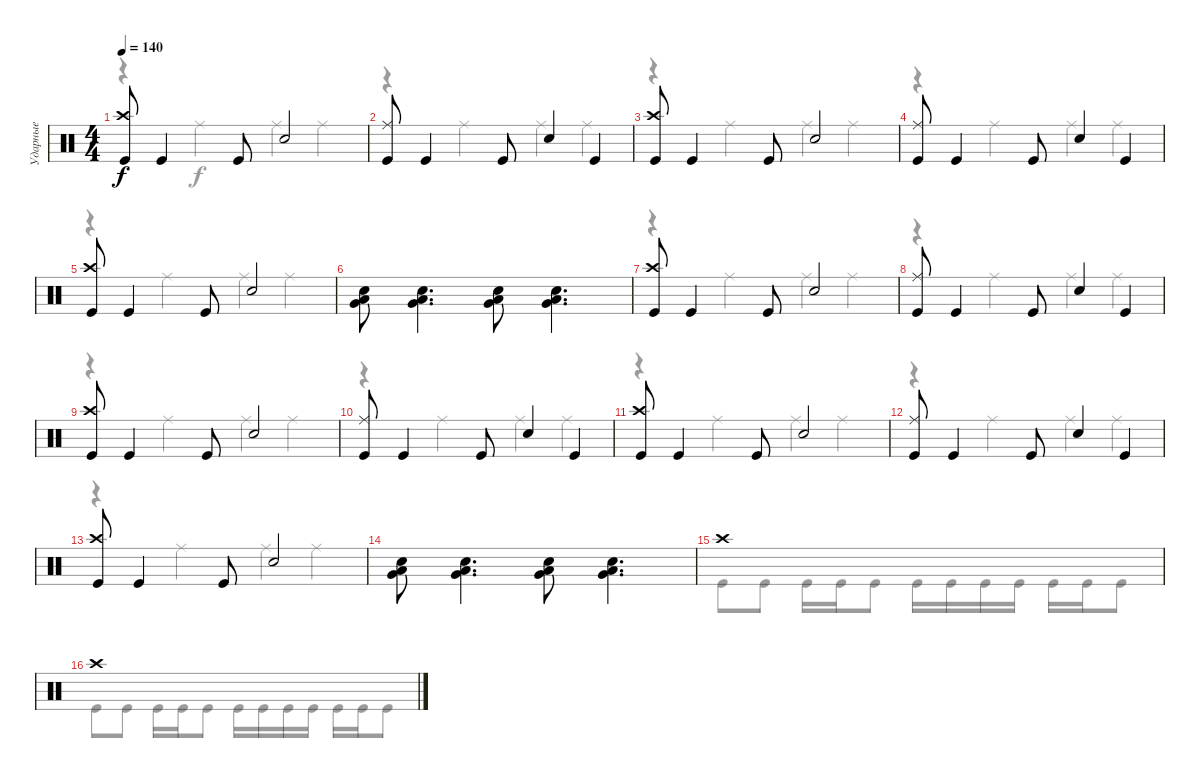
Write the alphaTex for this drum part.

\track ("Ударные" "Ударные") {instrument percussion}
\staff {score}
\articulation defaults
\voice
\ts (4 4)
\tempo 140
\clef neutral
\ks c
("Crash high (hit)" "Kick (hit)").8{dy f} "Kick (hit)".4 "Kick (hit)".8 "Electric Snare (hit)".2 |
("Ride (middle)" "Kick (hit)").8 "Kick (hit)".4 "Kick (hit)".8 "Electric Snare (hit)".4 "Kick (hit)".4 |
("Crash high (hit)" "Kick (hit)").8 "Kick (hit)".4 "Kick (hit)".8 "Electric Snare (hit)".2 |
("Ride (middle)" "Kick (hit)").8 "Kick (hit)".4 "Kick (hit)".8 "Electric Snare (hit)".4 "Kick (hit)".4 |
("Crash high (hit)" "Kick (hit)").8 "Kick (hit)".4 "Kick (hit)".8 "Electric Snare (hit)".2 |
("Very Low Tom (hit)" "Electric Snare (hit)" "Low Floor Tom (hit)").8 ("Very Low Tom (hit)" "Electric Snare (hit)" "Low Floor Tom (hit)").4{d} ("Very Low Tom (hit)" "Electric Snare (hit)" "Low Floor Tom (hit)").8 ("Very Low Tom (hit)" "Electric Snare (hit)" "Low Floor Tom (hit)").4{d} |
("Crash high (hit)" "Kick (hit)").8 "Kick (hit)".4 "Kick (hit)".8 "Electric Snare (hit)".2 |
("Ride (middle)" "Kick (hit)").8 "Kick (hit)".4 "Kick (hit)".8 "Electric Snare (hit)".4 "Kick (hit)".4 |
("Crash high (hit)" "Kick (hit)").8 "Kick (hit)".4 "Kick (hit)".8 "Electric Snare (hit)".2 |
("Ride (middle)" "Kick (hit)").8 "Kick (hit)".4 "Kick (hit)".8 "Electric Snare (hit)".4 "Kick (hit)".4 |
("Crash high (hit)" "Kick (hit)").8 "Kick (hit)".4 "Kick (hit)".8 "Electric Snare (hit)".2 |
("Ride (middle)" "Kick (hit)").8 "Kick (hit)".4 "Kick (hit)".8 "Electric Snare (hit)".4 "Kick (hit)".4 |
("Crash high (hit)" "Kick (hit)").8 "Kick (hit)".4 "Kick (hit)".8 "Electric Snare (hit)".2 |
("Very Low Tom (hit)" "Electric Snare (hit)" "Low Floor Tom (hit)").8 ("Very Low Tom (hit)" "Electric Snare (hit)" "Low Floor Tom (hit)").4{d} ("Very Low Tom (hit)" "Electric Snare (hit)" "Low Floor Tom (hit)").8 ("Very Low Tom (hit)" "Electric Snare (hit)" "Low Floor Tom (hit)").4{d} |
"Crash high (hit)".1 |
"Crash high (hit)".1
\voice
\clef neutral
\ottava regular
\simile none
\ks c
r.4{dy f} "Ride (middle)".4 "Ride (middle)".4 "Ride (middle)".4 |
r.4 "Ride (middle)".4 "Ride (middle)".4 "Ride (middle)".4 |
r.4 "Ride (middle)".4 "Ride (middle)".4 "Ride (middle)".4 |
r.4 "Ride (middle)".4 "Ride (middle)".4 "Ride (middle)".4 |
r.4 "Ride (middle)".4 "Ride (middle)".4 "Ride (middle)".4 |
|
r.4 "Ride (middle)".4 "Ride (middle)".4 "Ride (middle)".4 |
r.4 "Ride (middle)".4 "Ride (middle)".4 "Ride (middle)".4 |
r.4 "Ride (middle)".4 "Ride (middle)".4 "Ride (middle)".4 |
r.4 "Ride (middle)".4 "Ride (middle)".4 "Ride (middle)".4 |
r.4 "Ride (middle)".4 "Ride (middle)".4 "Ride (middle)".4 |
r.4 "Ride (middle)".4 "Ride (middle)".4 "Ride (middle)".4 |
r.4 "Ride (middle)".4 "Ride (middle)".4 "Ride (middle)".4 |
|
"Kick (hit)".8 "Kick (hit)".8 "Kick (hit)".16 "Kick (hit)".16 "Kick (hit)".8 "Kick (hit)".16 "Kick (hit)".16 "Kick (hit)".16 "Kick (hit)".16 "Kick (hit)".16 "Kick (hit)".16 "Kick (hit)".8 |
"Kick (hit)".8 "Kick (hit)".8 "Kick (hit)".16 "Kick (hit)".16 "Kick (hit)".8 "Kick (hit)".16 "Kick (hit)".16 "Kick (hit)".16 "Kick (hit)".16 "Kick (hit)".16 "Kick (hit)".16 "Kick (hit)".8
